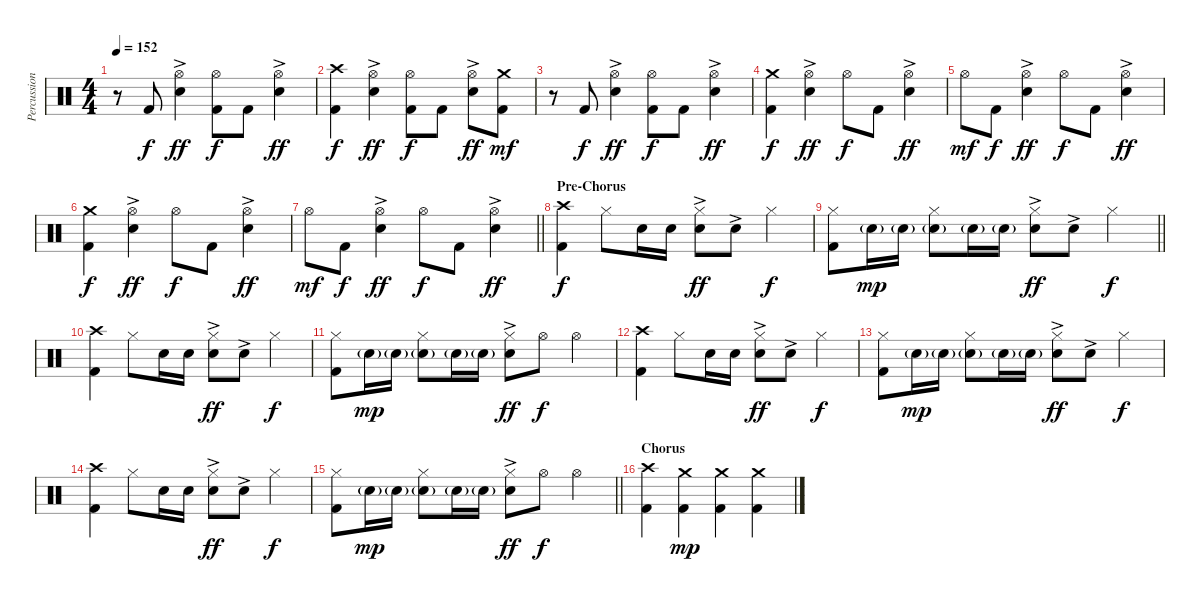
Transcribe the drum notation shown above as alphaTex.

\track ("Percussion" "Percussion") {instrument percussion}
\staff {score}
\articulation defaults
\ts (4 4)
\tempo 152
\clef neutral
\ks c
r.8{dy mf} "Kick (hit) 2".8{dy f} ("Hi-Hat (open)" "Electric Snare (hit)"{ac}).4{dy ff} ("Hi-Hat (open)" "Kick (hit) 2").8{dy f} "Kick (hit) 2".8 ("Hi-Hat (open)" "Electric Snare (hit)"{ac}).4{dy ff} |
("Crash high (hit)" "Kick (hit) 2").4{dy f} ("Hi-Hat (open)" "Electric Snare (hit)"{ac}).4{dy ff} ("Hi-Hat (open)" "Kick (hit) 2").8{dy f} "Kick (hit) 2".8 ("Hi-Hat (open)" "Electric Snare (hit)"{ac}).8{dy ff} ("Crash medium (hit)" "Kick (hit) 2").8{dy mf} |
r.8 "Kick (hit) 2".8{dy f} ("Hi-Hat (open)" "Electric Snare (hit)"{ac}).4{dy ff} ("Hi-Hat (open)" "Kick (hit) 2").8{dy f} "Kick (hit) 2".8 ("Hi-Hat (open)" "Electric Snare (hit)"{ac}).4{dy ff} |
("Crash medium (hit)" "Kick (hit) 2").4{dy f} ("Hi-Hat (open)" "Electric Snare (hit)"{ac}).4{dy ff} "Hi-Hat (open)".8{dy f} "Kick (hit) 2".8 ("Hi-Hat (open)" "Electric Snare (hit)"{ac}).4{dy ff} |
"Hi-Hat (open)".8{dy mf} "Kick (hit) 2".8{dy f} ("Hi-Hat (open)" "Electric Snare (hit)"{ac}).4{dy ff} "Hi-Hat (open)".8{dy f} "Kick (hit) 2".8 ("Hi-Hat (open)" "Electric Snare (hit)"{ac}).4{dy ff} |
("Crash medium (hit)" "Kick (hit) 2").4{dy f} ("Hi-Hat (open)" "Electric Snare (hit)"{ac}).4{dy ff} "Hi-Hat (open)".8{dy f} "Kick (hit) 2".8 ("Hi-Hat (open)" "Electric Snare (hit)"{ac}).4{dy ff} |
\barLineRight lightlight "Hi-Hat (open)".8{dy mf} "Kick (hit) 2".8{dy f}
("Hi-Hat (open)" "Electric Snare (hit)"{ac}).4{dy ff} "Hi-Hat (open)".8{dy f} "Kick (hit) 2".8 ("Hi-Hat (open)" "Electric Snare (hit)"{ac}).4{dy ff} |
\section ("" "Pre-Chorus")
("Crash high (hit)" "Kick (hit) 2").4{dy f} "Hi-Hat (closed)".8 "Electric Snare (hit)".16 "Electric Snare (hit)".16 ("Hi-Hat (closed)" "Electric Snare (hit)"{ac}).8{dy ff} "Electric Snare (hit)"{ac}.8 "Hi-Hat (closed)".4{dy f} |
\barLineRight lightlight
("Hi-Hat (closed)" "Kick (hit) 2").8 "Electric Snare (hit)"{g}.16{dy mp} "Electric Snare (hit)"{g}.16 ("Hi-Hat (closed)" "Electric Snare (hit)"{g}).8 "Electric Snare (hit)"{g}.16 "Electric Snare (hit)"{g}.16 ("Hi-Hat (closed)" "Electric Snare (hit)"{ac}).8{dy ff} "Electric Snare (hit)"{ac}.8 "Hi-Hat (closed)".4{dy f} |
("Crash high (hit)" "Kick (hit) 2").4 "Hi-Hat (closed)".8 "Electric Snare (hit)".16 "Electric Snare (hit)".16 ("Hi-Hat (closed)" "Electric Snare (hit)"{ac}).8{dy ff} "Electric Snare (hit)"{ac}.8 "Hi-Hat (closed)".4{dy f} |
("Hi-Hat (closed)" "Kick (hit) 2").8 "Electric Snare (hit)"{g}.16{dy mp} "Electric Snare (hit)"{g}.16 ("Hi-Hat (closed)" "Electric Snare (hit)"{g}).8 "Electric Snare (hit)"{g}.16 "Electric Snare (hit)"{g}.16 ("Hi-Hat (closed)" "Electric Snare (hit)"{ac}).8{dy ff} "Hi-Hat (open)".8{dy f} "Hi-Hat (open)".4 |
("Crash high (hit)" "Kick (hit) 2").4 "Hi-Hat (closed)".8 "Electric Snare (hit)".16 "Electric Snare (hit)".16 ("Hi-Hat (closed)" "Electric Snare (hit)"{ac}).8{dy ff} "Electric Snare (hit)"{ac}.8 "Hi-Hat (closed)".4{dy f} |
("Hi-Hat (closed)" "Kick (hit) 2").8 "Electric Snare (hit)"{g}.16{dy mp} "Electric Snare (hit)"{g}.16 ("Hi-Hat (closed)" "Electric Snare (hit)"{g}).8 "Electric Snare (hit)"{g}.16 "Electric Snare (hit)"{g}.16 ("Hi-Hat (closed)" "Electric Snare (hit)"{ac}).8{dy ff} "Electric Snare (hit)"{ac}.8 "Hi-Hat (closed)".4{dy f} |
("Crash high (hit)" "Kick (hit) 2").4 "Hi-Hat (closed)".8 "Electric Snare (hit)".16 "Electric Snare (hit)".16 ("Hi-Hat (closed)" "Electric Snare (hit)"{ac}).8{dy ff} "Electric Snare (hit)"{ac}.8 "Hi-Hat (closed)".4{dy f} |
\barLineRight lightlight
("Hi-Hat (closed)" "Kick (hit) 2").8 "Electric Snare (hit)"{g}.16{dy mp} "Electric Snare (hit)"{g}.16 ("Hi-Hat (closed)" "Electric Snare (hit)"{g}).8 "Electric Snare (hit)"{g}.16 "Electric Snare (hit)"{g}.16 ("Hi-Hat (closed)" "Electric Snare (hit)"{ac}).8{dy ff} "Hi-Hat (open)".8{dy f} "Hi-Hat (open)".4 |
\section ("" "Chorus")
("Crash high (hit)" "Kick (hit) 2").4 ("Crash medium (hit)" "Kick (hit) 2").4{dy mp} ("Crash medium (hit)" "Kick (hit) 2").4 ("Crash medium (hit)" "Kick (hit) 2").4
